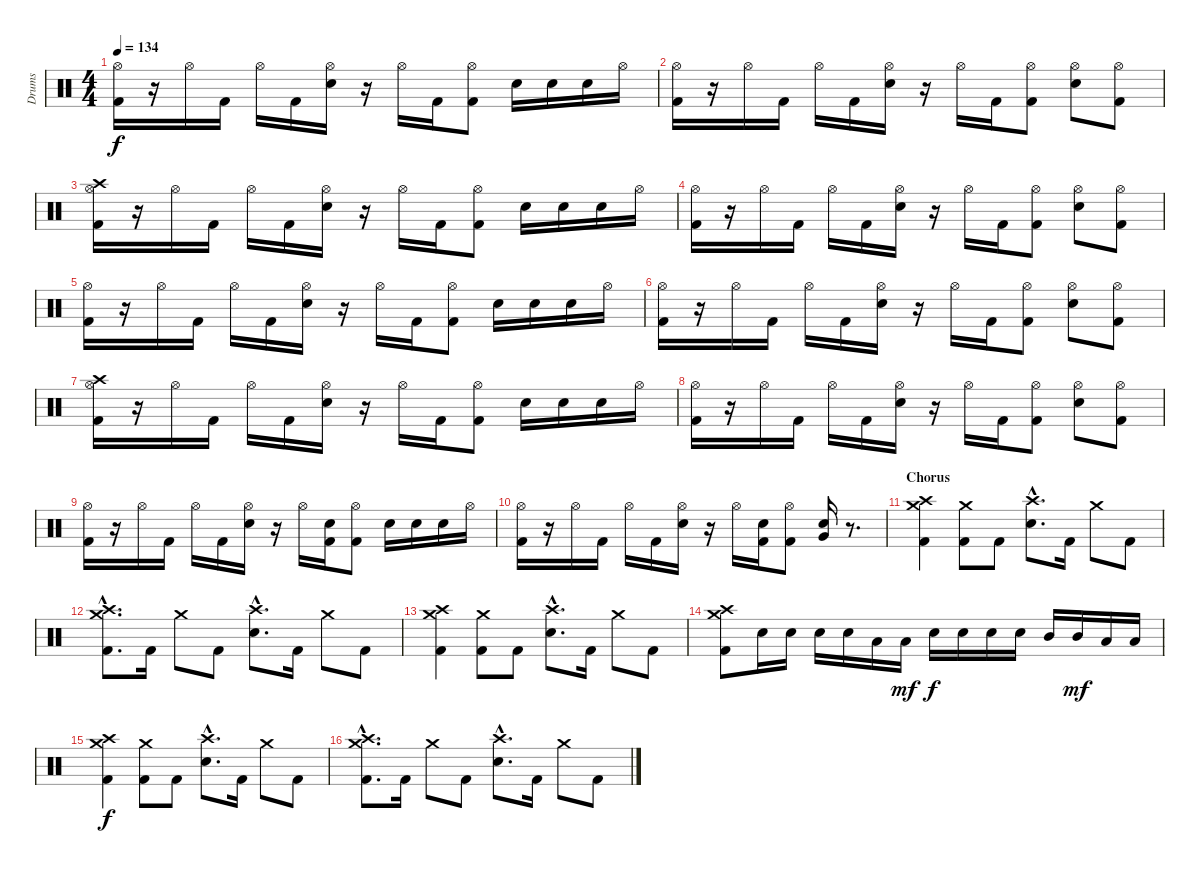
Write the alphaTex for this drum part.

\track ("Drums" "Drums") {instrument percussion}
\staff {score}
\articulation defaults
\ts (4 4)
\tempo 134
\clef neutral
\ks c
("Hi-Hat (open)" "Kick (hit) 2").16{dy f} r.16 "Hi-Hat (open)".16 "Kick (hit) 2".16 "Hi-Hat (open)".16 "Kick (hit) 2".16 ("Hi-Hat (open)" "Electric Snare (hit)").16 r.16 "Hi-Hat (open)".16 "Kick (hit) 2".16 ("Hi-Hat (open)" "Kick (hit) 2").8 "Electric Snare (hit)".16 "Electric Snare (hit)".16 "Electric Snare (hit)".16 "Hi-Hat (open)".16 |
("Hi-Hat (open)" "Kick (hit) 2").16 r.16 "Hi-Hat (open)".16 "Kick (hit) 2".16 "Hi-Hat (open)".16 "Kick (hit) 2".16 ("Hi-Hat (open)" "Electric Snare (hit)").16 r.16 "Hi-Hat (open)".16 "Kick (hit) 2".16 ("Hi-Hat (open)" "Kick (hit) 2").8 ("Hi-Hat (open)" "Electric Snare (hit)").8 ("Hi-Hat (open)" "Kick (hit) 2").8 |
("Crash high (hit)" "Hi-Hat (open)" "Kick (hit) 2").16 r.16 "Hi-Hat (open)".16 "Kick (hit) 2".16 "Hi-Hat (open)".16 "Kick (hit) 2".16 ("Hi-Hat (open)" "Electric Snare (hit)").16 r.16 "Hi-Hat (open)".16 "Kick (hit) 2".16 ("Hi-Hat (open)" "Kick (hit) 2").8 "Electric Snare (hit)".16 "Electric Snare (hit)".16 "Electric Snare (hit)".16 "Hi-Hat (open)".16 |
("Hi-Hat (open)" "Kick (hit) 2").16 r.16 "Hi-Hat (open)".16 "Kick (hit) 2".16 "Hi-Hat (open)".16 "Kick (hit) 2".16 ("Hi-Hat (open)" "Electric Snare (hit)").16 r.16 "Hi-Hat (open)".16 "Kick (hit) 2".16 ("Hi-Hat (open)" "Kick (hit) 2").8 ("Hi-Hat (open)" "Electric Snare (hit)").8 ("Hi-Hat (open)" "Kick (hit) 2").8 |
("Hi-Hat (open)" "Kick (hit) 2").16 r.16 "Hi-Hat (open)".16 "Kick (hit) 2".16 "Hi-Hat (open)".16 "Kick (hit) 2".16 ("Hi-Hat (open)" "Electric Snare (hit)").16 r.16 "Hi-Hat (open)".16 "Kick (hit) 2".16 ("Hi-Hat (open)" "Kick (hit) 2").8 "Electric Snare (hit)".16 "Electric Snare (hit)".16 "Electric Snare (hit)".16 "Hi-Hat (open)".16 |
("Hi-Hat (open)" "Kick (hit) 2").16 r.16 "Hi-Hat (open)".16 "Kick (hit) 2".16 "Hi-Hat (open)".16 "Kick (hit) 2".16 ("Hi-Hat (open)" "Electric Snare (hit)").16 r.16 "Hi-Hat (open)".16 "Kick (hit) 2".16 ("Hi-Hat (open)" "Kick (hit) 2").8 ("Hi-Hat (open)" "Electric Snare (hit)").8 ("Hi-Hat (open)" "Kick (hit) 2").8 |
("Crash high (hit)" "Hi-Hat (open)" "Kick (hit) 2").16 r.16 "Hi-Hat (open)".16 "Kick (hit) 2".16 "Hi-Hat (open)".16 "Kick (hit) 2".16 ("Hi-Hat (open)" "Electric Snare (hit)").16 r.16 "Hi-Hat (open)".16 "Kick (hit) 2".16 ("Hi-Hat (open)" "Kick (hit) 2").8 "Electric Snare (hit)".16 "Electric Snare (hit)".16 "Electric Snare (hit)".16 "Hi-Hat (open)".16 |
("Hi-Hat (open)" "Kick (hit) 2").16 r.16 "Hi-Hat (open)".16 "Kick (hit) 2".16 "Hi-Hat (open)".16 "Kick (hit) 2".16 ("Hi-Hat (open)" "Electric Snare (hit)").16 r.16 "Hi-Hat (open)".16 "Kick (hit) 2".16 ("Hi-Hat (open)" "Kick (hit) 2").8 ("Hi-Hat (open)" "Electric Snare (hit)").8 ("Hi-Hat (open)" "Kick (hit) 2").8 |
("Hi-Hat (open)" "Kick (hit) 2").16 r.16 "Hi-Hat (open)".16 "Kick (hit) 2".16 "Hi-Hat (open)".16 "Kick (hit) 2".16 ("Hi-Hat (open)" "Electric Snare (hit)").16 r.16 "Hi-Hat (open)".16 ("Electric Snare (hit)" "Kick (hit) 2").16 ("Hi-Hat (open)" "Kick (hit) 2").8 "Electric Snare (hit)".16 "Electric Snare (hit)".16 "Electric Snare (hit)".16 "Hi-Hat (open)".16 |
("Hi-Hat (open)" "Kick (hit) 2").16 r.16 "Hi-Hat (open)".16 "Kick (hit) 2".16 "Hi-Hat (open)".16 "Kick (hit) 2".16 ("Hi-Hat (open)" "Electric Snare (hit)").16 r.16 "Hi-Hat (open)".16 ("Electric Snare (hit)" "Kick (hit) 2").16 ("Hi-Hat (open)" "Kick (hit) 2").8 ("Very Low Tom (hit)" "Electric Snare (hit)").16 r.8{d} |
\section ("" "Chorus")
("Crash high (hit)" "Crash medium (hit)" "Kick (hit) 2").4 ("Crash medium (hit)" "Kick (hit) 2").8 "Kick (hit) 2".8 ("Crash high (hit)"{hac} "Electric Snare (hit)"{hac}).8{d} "Kick (hit) 2".16 "Crash medium (hit)".8 "Kick (hit) 2".8 |
("Crash high (hit)"{hac} "Crash medium (hit)"{hac} "Kick (hit) 2"{hac}).8{d} "Kick (hit) 2".16 "Crash medium (hit)".8 "Kick (hit) 2".8 ("Crash high (hit)"{hac} "Electric Snare (hit)"{hac}).8{d} "Kick (hit) 2".16 "Crash medium (hit)".8 "Kick (hit) 2".8 |
("Crash high (hit)" "Crash medium (hit)" "Kick (hit) 2").4 ("Crash medium (hit)" "Kick (hit) 2").8 "Kick (hit) 2".8 ("Crash high (hit)"{hac} "Electric Snare (hit)"{hac}).8{d} "Kick (hit) 2".16 "Crash medium (hit)".8 "Kick (hit) 2".8 |
("Crash high (hit)" "Crash medium (hit)" "Kick (hit) 2").8 "Electric Snare (hit)".16 "Electric Snare (hit)".16 "Electric Snare (hit)".16 "Electric Snare (hit)".16 "Low Tom (hit)".16 "Low Tom (hit)".16{dy mf} "Electric Snare (hit)".16{dy f} "Electric Snare (hit)".16 "Electric Snare (hit)".16 "Electric Snare (hit)".16 "Mid Tom (hit)".16 "Mid Tom (hit)".16{dy mf} "Low Tom (hit)".16 "Low Tom (hit)".16 |
("Crash high (hit)" "Crash medium (hit)" "Kick (hit) 2").4{dy f} ("Crash medium (hit)" "Kick (hit) 2").8 "Kick (hit) 2".8 ("Crash high (hit)"{hac} "Electric Snare (hit)"{hac}).8{d} "Kick (hit) 2".16 "Crash medium (hit)".8 "Kick (hit) 2".8 |
("Crash high (hit)"{hac} "Crash medium (hit)"{hac} "Kick (hit) 2"{hac}).8{d} "Kick (hit) 2".16 "Crash medium (hit)".8 "Kick (hit) 2".8 ("Crash high (hit)"{hac} "Electric Snare (hit)"{hac}).8{d} "Kick (hit) 2".16 "Crash medium (hit)".8 "Kick (hit) 2".8
